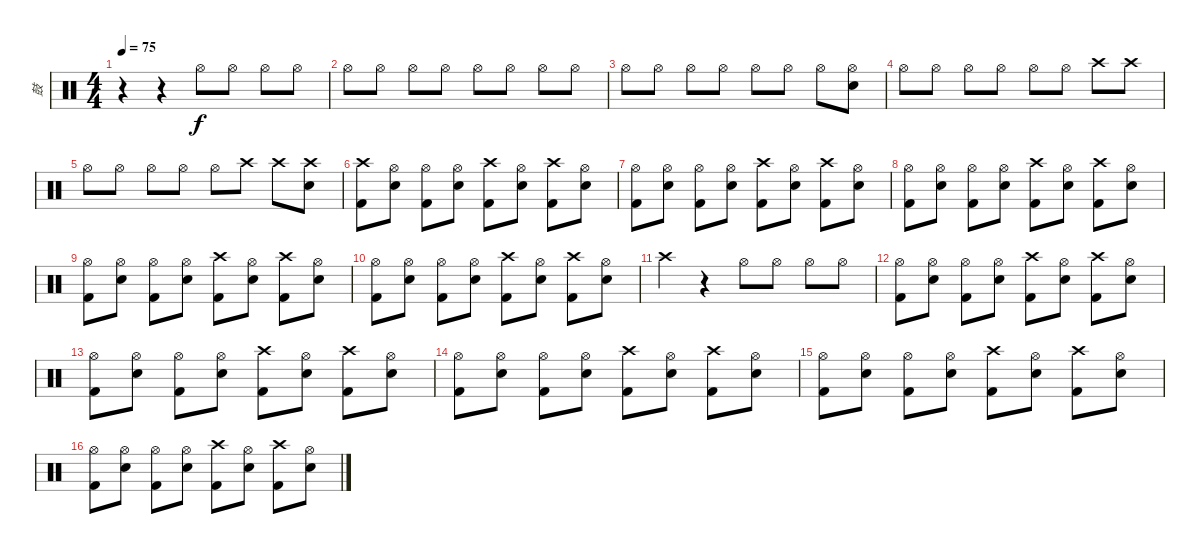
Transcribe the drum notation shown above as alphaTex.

\track ("鼓" "鼓") {instrument percussion}
\staff {score}
\articulation defaults
\ts (4 4)
\tempo 75
\clef neutral
\ks c
r.4{dy f} r.4 "Hi-Hat (open)".8 "Hi-Hat (open)".8 "Hi-Hat (open)".8 "Hi-Hat (open)".8 |
"Hi-Hat (open)".8 "Hi-Hat (open)".8 "Hi-Hat (open)".8 "Hi-Hat (open)".8 "Hi-Hat (open)".8 "Hi-Hat (open)".8 "Hi-Hat (open)".8 "Hi-Hat (open)".8 |
"Hi-Hat (open)".8 "Hi-Hat (open)".8 "Hi-Hat (open)".8 "Hi-Hat (open)".8 "Hi-Hat (open)".8 "Hi-Hat (open)".8 "Hi-Hat (open)".8 ("Hi-Hat (open)" "Electric Snare (hit)").8 |
"Hi-Hat (open)".8 "Hi-Hat (open)".8 "Hi-Hat (open)".8 "Hi-Hat (open)".8 "Hi-Hat (open)".8 "Hi-Hat (open)".8 "Crash high (hit)".8 "Crash high (hit)".8 |
"Hi-Hat (open)".8 "Hi-Hat (open)".8 "Hi-Hat (open)".8 "Hi-Hat (open)".8 "Hi-Hat (open)".8 "Crash high (hit)".8 "Crash high (hit)".8 ("Crash high (hit)" "Electric Snare (hit)").8 |
("Crash high (hit)" "Kick (hit) 2").8 ("Hi-Hat (open)" "Electric Snare (hit)").8 ("Hi-Hat (open)" "Kick (hit) 2").8 ("Hi-Hat (open)" "Electric Snare (hit)").8 ("Crash high (hit)" "Kick (hit) 2").8 ("Hi-Hat (open)" "Electric Snare (hit)").8 ("Crash high (hit)" "Kick (hit) 2").8 ("Hi-Hat (open)" "Electric Snare (hit)").8 |
("Hi-Hat (open)" "Kick (hit) 2").8 ("Hi-Hat (open)" "Electric Snare (hit)").8 ("Hi-Hat (open)" "Kick (hit) 2").8 ("Hi-Hat (open)" "Electric Snare (hit)").8 ("Crash high (hit)" "Kick (hit) 2").8 ("Hi-Hat (open)" "Electric Snare (hit)").8 ("Crash high (hit)" "Kick (hit) 2").8 ("Hi-Hat (open)" "Electric Snare (hit)").8 |
("Hi-Hat (open)" "Kick (hit) 2").8 ("Hi-Hat (open)" "Electric Snare (hit)").8 ("Hi-Hat (open)" "Kick (hit) 2").8 ("Hi-Hat (open)" "Electric Snare (hit)").8 ("Crash high (hit)" "Kick (hit) 2").8 ("Hi-Hat (open)" "Electric Snare (hit)").8 ("Crash high (hit)" "Kick (hit) 2").8 ("Hi-Hat (open)" "Electric Snare (hit)").8 |
("Hi-Hat (open)" "Kick (hit) 2").8 ("Hi-Hat (open)" "Electric Snare (hit)").8 ("Hi-Hat (open)" "Kick (hit) 2").8 ("Hi-Hat (open)" "Electric Snare (hit)").8 ("Crash high (hit)" "Kick (hit) 2").8 ("Hi-Hat (open)" "Electric Snare (hit)").8 ("Crash high (hit)" "Kick (hit) 2").8 ("Hi-Hat (open)" "Electric Snare (hit)").8 |
("Hi-Hat (open)" "Kick (hit) 2").8 ("Hi-Hat (open)" "Electric Snare (hit)").8 ("Hi-Hat (open)" "Kick (hit) 2").8 ("Hi-Hat (open)" "Electric Snare (hit)").8 ("Crash high (hit)" "Kick (hit) 2").8 ("Hi-Hat (open)" "Electric Snare (hit)").8 ("Crash high (hit)" "Kick (hit) 2").8 ("Hi-Hat (open)" "Electric Snare (hit)").8 |
"Crash high (hit)".4 r.4 "Hi-Hat (open)".8 "Hi-Hat (open)".8 "Hi-Hat (open)".8 "Hi-Hat (open)".8 |
("Hi-Hat (open)" "Kick (hit) 2").8 ("Hi-Hat (open)" "Electric Snare (hit)").8 ("Hi-Hat (open)" "Kick (hit) 2").8 ("Hi-Hat (open)" "Electric Snare (hit)").8 ("Crash high (hit)" "Kick (hit) 2").8 ("Hi-Hat (open)" "Electric Snare (hit)").8 ("Crash high (hit)" "Kick (hit) 2").8 ("Hi-Hat (open)" "Electric Snare (hit)").8 |
("Hi-Hat (open)" "Kick (hit) 2").8 ("Hi-Hat (open)" "Electric Snare (hit)").8 ("Hi-Hat (open)" "Kick (hit) 2").8 ("Hi-Hat (open)" "Electric Snare (hit)").8 ("Crash high (hit)" "Kick (hit) 2").8 ("Hi-Hat (open)" "Electric Snare (hit)").8 ("Crash high (hit)" "Kick (hit) 2").8 ("Hi-Hat (open)" "Electric Snare (hit)").8 |
("Hi-Hat (open)" "Kick (hit) 2").8 ("Hi-Hat (open)" "Electric Snare (hit)").8 ("Hi-Hat (open)" "Kick (hit) 2").8 ("Hi-Hat (open)" "Electric Snare (hit)").8 ("Crash high (hit)" "Kick (hit) 2").8 ("Hi-Hat (open)" "Electric Snare (hit)").8 ("Crash high (hit)" "Kick (hit) 2").8 ("Hi-Hat (open)" "Electric Snare (hit)").8 |
("Hi-Hat (open)" "Kick (hit) 2").8 ("Hi-Hat (open)" "Electric Snare (hit)").8 ("Hi-Hat (open)" "Kick (hit) 2").8 ("Hi-Hat (open)" "Electric Snare (hit)").8 ("Crash high (hit)" "Kick (hit) 2").8 ("Hi-Hat (open)" "Electric Snare (hit)").8 ("Crash high (hit)" "Kick (hit) 2").8 ("Hi-Hat (open)" "Electric Snare (hit)").8 |
("Hi-Hat (open)" "Kick (hit) 2").8 ("Hi-Hat (open)" "Electric Snare (hit)").8 ("Hi-Hat (open)" "Kick (hit) 2").8 ("Hi-Hat (open)" "Electric Snare (hit)").8 ("Crash high (hit)" "Kick (hit) 2").8 ("Hi-Hat (open)" "Electric Snare (hit)").8 ("Crash high (hit)" "Kick (hit) 2").8 ("Hi-Hat (open)" "Electric Snare (hit)").8
